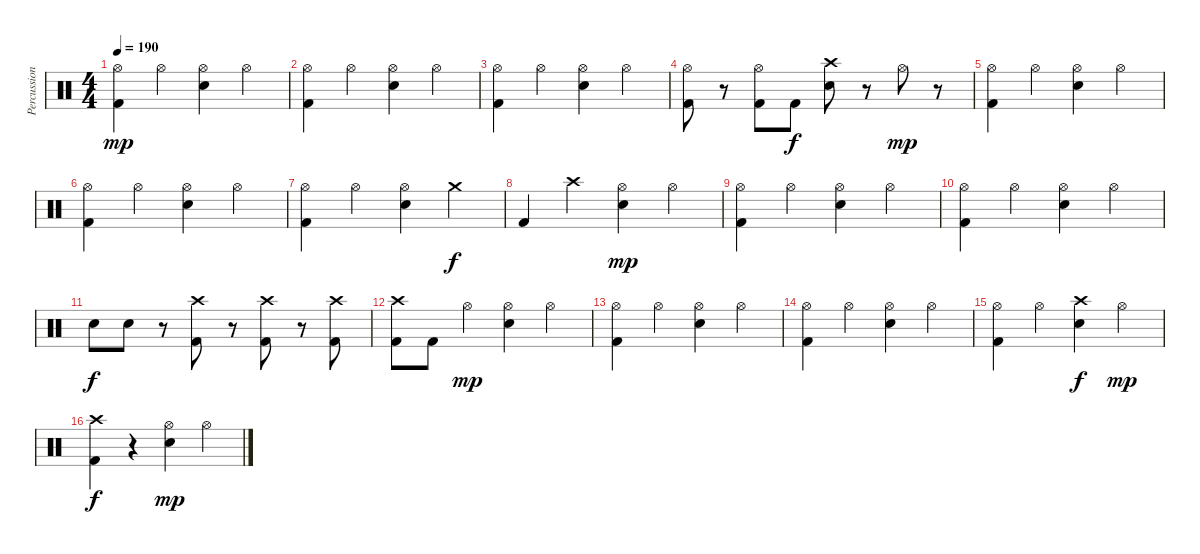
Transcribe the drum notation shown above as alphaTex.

\track ("Percussion" "Percussion") {instrument percussion}
\staff {score}
\articulation defaults
\ts (4 4)
\tempo 190
\clef neutral
\ks c
("Hi-Hat (open)" "Kick (hit) 2").4{dy mp} "Hi-Hat (open)".4 ("Hi-Hat (open)" "Snare (hit) 2").4 "Hi-Hat (open)".4 |
("Hi-Hat (open)" "Kick (hit) 2").4 "Hi-Hat (open)".4 ("Hi-Hat (open)" "Snare (hit) 2").4 "Hi-Hat (open)".4 |
("Hi-Hat (open)" "Kick (hit) 2").4 "Hi-Hat (open)".4 ("Hi-Hat (open)" "Snare (hit) 2").4 "Hi-Hat (open)".4 |
("Hi-Hat (open)" "Kick (hit) 2").8 r.8 ("Hi-Hat (open)" "Kick (hit) 2").8 "Kick (hit) 2".8{dy f} ("Crash high (hit)" "Snare (hit) 2").8 r.8 "Hi-Hat (open)".8{dy mp} r.8 |
("Hi-Hat (open)" "Kick (hit) 2").4 "Hi-Hat (open)".4 ("Hi-Hat (open)" "Snare (hit) 2").4 "Hi-Hat (open)".4 |
("Hi-Hat (open)" "Kick (hit) 2").4 "Hi-Hat (open)".4 ("Hi-Hat (open)" "Snare (hit) 2").4 "Hi-Hat (open)".4 |
("Hi-Hat (open)" "Kick (hit) 2").4 "Hi-Hat (open)".4 ("Hi-Hat (open)" "Snare (hit) 2").4 "Crash medium (hit)".4{dy f} |
"Kick (hit) 2".4 "Crash high (hit)".4 ("Hi-Hat (open)" "Snare (hit) 2").4{dy mp} "Hi-Hat (open)".4 |
("Hi-Hat (open)" "Kick (hit) 2").4 "Hi-Hat (open)".4 ("Hi-Hat (open)" "Snare (hit) 2").4 "Hi-Hat (open)".4 |
("Hi-Hat (open)" "Kick (hit) 2").4 "Hi-Hat (open)".4 ("Hi-Hat (open)" "Snare (hit) 2").4 "Hi-Hat (open)".4 |
"Snare (hit) 2".8{dy f} "Snare (hit) 2".8 r.8 ("Crash high (hit)" "Kick (hit) 2").8 r.8 ("Crash high (hit)" "Kick (hit) 2").8 r.8 ("Crash high (hit)" "Kick (hit) 2").8 |
("Crash high (hit)" "Kick (hit) 2").8 "Kick (hit) 2".8 "Hi-Hat (open)".4{dy mp} ("Hi-Hat (open)" "Snare (hit) 2").4 "Hi-Hat (open)".4 |
("Hi-Hat (open)" "Kick (hit) 2").4 "Hi-Hat (open)".4 ("Hi-Hat (open)" "Snare (hit) 2").4 "Hi-Hat (open)".4 |
("Hi-Hat (open)" "Kick (hit) 2").4 "Hi-Hat (open)".4 ("Hi-Hat (open)" "Snare (hit) 2").4 "Hi-Hat (open)".4 |
("Hi-Hat (open)" "Kick (hit) 2").4 "Hi-Hat (open)".4 ("Crash high (hit)" "Snare (hit) 2").4{dy f} "Hi-Hat (open)".4{dy mp} |
("Crash high (hit)" "Kick (hit) 2").4{dy f} r.4 ("Hi-Hat (open)" "Snare (hit) 2").4{dy mp} "Hi-Hat (open)".4
